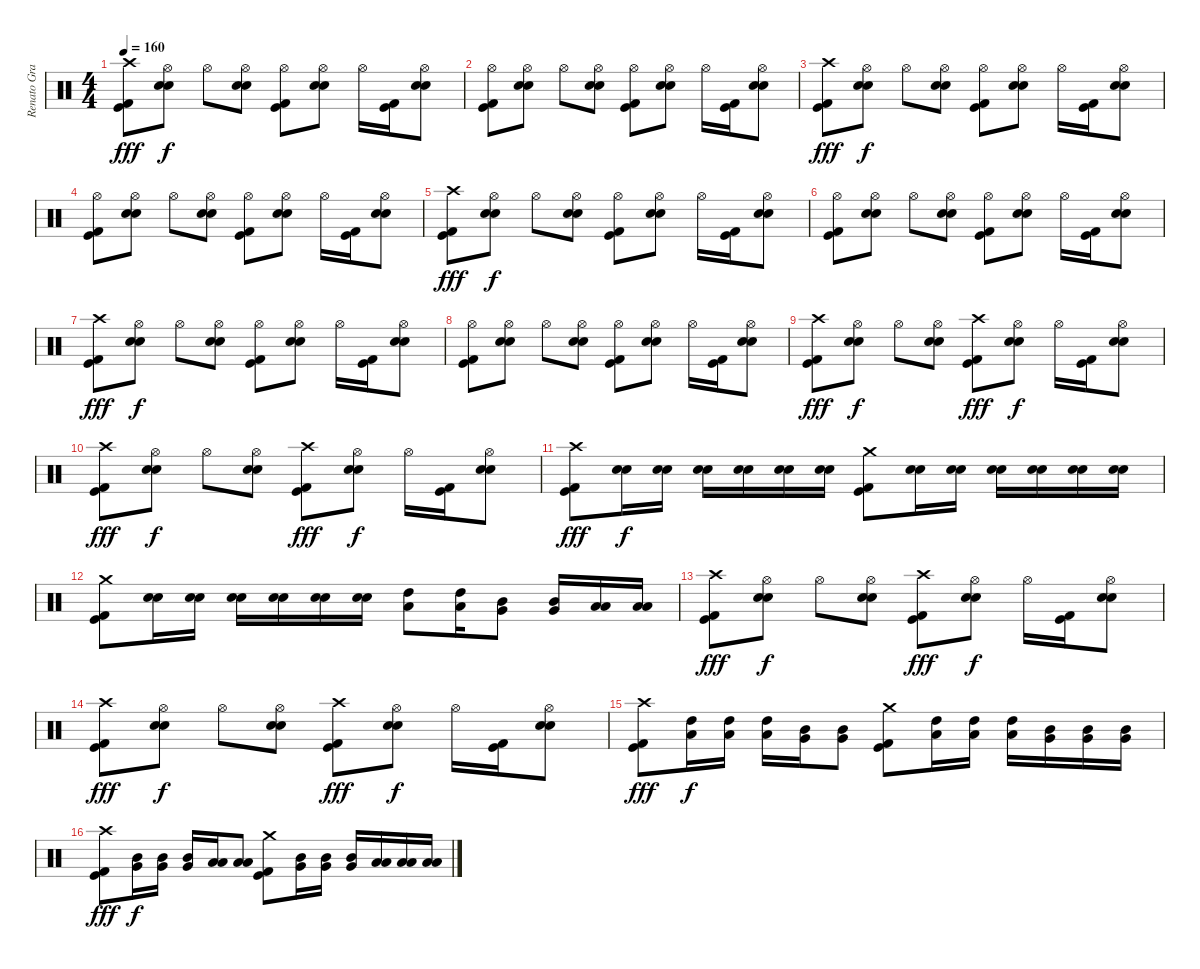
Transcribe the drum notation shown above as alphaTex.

\track ("Renato Graccia" "Renato Gra") {instrument percussion}
\staff {score}
\articulation defaults
\ts (4 4)
\tempo 160
\clef neutral
\ks c
("Crash high (hit)" "Kick (hit) 2" "Kick (hit)").8{dy fff} ("Hi-Hat (open)" "Electric Snare (hit)" "Snare (hit) 2").8{dy f} "Hi-Hat (open)".8 ("Hi-Hat (open)" "Electric Snare (hit)" "Snare (hit) 2").8 ("Hi-Hat (open)" "Kick (hit) 2" "Kick (hit)").8 ("Hi-Hat (open)" "Electric Snare (hit)" "Snare (hit) 2").8 "Hi-Hat (open)".16 ("Kick (hit) 2" "Kick (hit)").16 ("Hi-Hat (open)" "Electric Snare (hit)" "Snare (hit) 2").8 |
("Hi-Hat (open)" "Kick (hit) 2" "Kick (hit)").8 ("Hi-Hat (open)" "Electric Snare (hit)" "Snare (hit) 2").8 "Hi-Hat (open)".8 ("Hi-Hat (open)" "Electric Snare (hit)" "Snare (hit) 2").8 ("Hi-Hat (open)" "Kick (hit) 2" "Kick (hit)").8 ("Hi-Hat (open)" "Electric Snare (hit)" "Snare (hit) 2").8 "Hi-Hat (open)".16 ("Kick (hit) 2" "Kick (hit)").16 ("Hi-Hat (open)" "Electric Snare (hit)" "Snare (hit) 2").8 |
("Crash high (hit)" "Kick (hit) 2" "Kick (hit)").8{dy fff} ("Hi-Hat (open)" "Electric Snare (hit)" "Snare (hit) 2").8{dy f} "Hi-Hat (open)".8 ("Hi-Hat (open)" "Electric Snare (hit)" "Snare (hit) 2").8 ("Hi-Hat (open)" "Kick (hit) 2" "Kick (hit)").8 ("Hi-Hat (open)" "Electric Snare (hit)" "Snare (hit) 2").8 "Hi-Hat (open)".16 ("Kick (hit) 2" "Kick (hit)").16 ("Hi-Hat (open)" "Electric Snare (hit)" "Snare (hit) 2").8 |
("Hi-Hat (open)" "Kick (hit) 2" "Kick (hit)").8 ("Hi-Hat (open)" "Electric Snare (hit)" "Snare (hit) 2").8 "Hi-Hat (open)".8 ("Hi-Hat (open)" "Electric Snare (hit)" "Snare (hit) 2").8 ("Hi-Hat (open)" "Kick (hit) 2" "Kick (hit)").8 ("Hi-Hat (open)" "Electric Snare (hit)" "Snare (hit) 2").8 "Hi-Hat (open)".16 ("Kick (hit) 2" "Kick (hit)").16 ("Hi-Hat (open)" "Electric Snare (hit)" "Snare (hit) 2").8 |
("Crash high (hit)" "Kick (hit) 2" "Kick (hit)").8{dy fff} ("Hi-Hat (open)" "Electric Snare (hit)" "Snare (hit) 2").8{dy f} "Hi-Hat (open)".8 ("Hi-Hat (open)" "Electric Snare (hit)" "Snare (hit) 2").8 ("Hi-Hat (open)" "Kick (hit) 2" "Kick (hit)").8 ("Hi-Hat (open)" "Electric Snare (hit)" "Snare (hit) 2").8 "Hi-Hat (open)".16 ("Kick (hit) 2" "Kick (hit)").16 ("Hi-Hat (open)" "Electric Snare (hit)" "Snare (hit) 2").8 |
("Hi-Hat (open)" "Kick (hit) 2" "Kick (hit)").8 ("Hi-Hat (open)" "Electric Snare (hit)" "Snare (hit) 2").8 "Hi-Hat (open)".8 ("Hi-Hat (open)" "Electric Snare (hit)" "Snare (hit) 2").8 ("Hi-Hat (open)" "Kick (hit) 2" "Kick (hit)").8 ("Hi-Hat (open)" "Electric Snare (hit)" "Snare (hit) 2").8 "Hi-Hat (open)".16 ("Kick (hit) 2" "Kick (hit)").16 ("Hi-Hat (open)" "Electric Snare (hit)" "Snare (hit) 2").8 |
("Crash high (hit)" "Kick (hit) 2" "Kick (hit)").8{dy fff} ("Hi-Hat (open)" "Electric Snare (hit)" "Snare (hit) 2").8{dy f} "Hi-Hat (open)".8 ("Hi-Hat (open)" "Electric Snare (hit)" "Snare (hit) 2").8 ("Hi-Hat (open)" "Kick (hit) 2" "Kick (hit)").8 ("Hi-Hat (open)" "Electric Snare (hit)" "Snare (hit) 2").8 "Hi-Hat (open)".16 ("Kick (hit) 2" "Kick (hit)").16 ("Hi-Hat (open)" "Electric Snare (hit)" "Snare (hit) 2").8 |
("Hi-Hat (open)" "Kick (hit) 2" "Kick (hit)").8 ("Hi-Hat (open)" "Electric Snare (hit)" "Snare (hit) 2").8 "Hi-Hat (open)".8 ("Hi-Hat (open)" "Electric Snare (hit)" "Snare (hit) 2").8 ("Hi-Hat (open)" "Kick (hit) 2" "Kick (hit)").8 ("Hi-Hat (open)" "Electric Snare (hit)" "Snare (hit) 2").8 "Hi-Hat (open)".16 ("Kick (hit) 2" "Kick (hit)").16 ("Hi-Hat (open)" "Electric Snare (hit)" "Snare (hit) 2").8 |
("Crash high (hit)" "Kick (hit) 2" "Kick (hit)").8{dy fff} ("Hi-Hat (open)" "Electric Snare (hit)" "Snare (hit) 2").8{dy f} "Hi-Hat (open)".8 ("Hi-Hat (open)" "Electric Snare (hit)" "Snare (hit) 2").8 ("Crash high (hit)" "Kick (hit) 2" "Kick (hit)").8{dy fff} ("Hi-Hat (open)" "Electric Snare (hit)" "Snare (hit) 2").8{dy f} "Hi-Hat (open)".16 ("Kick (hit) 2" "Kick (hit)").16 ("Hi-Hat (open)" "Electric Snare (hit)" "Snare (hit) 2").8 |
("Crash high (hit)" "Kick (hit) 2" "Kick (hit)").8{dy fff} ("Hi-Hat (open)" "Electric Snare (hit)" "Snare (hit) 2").8{dy f} "Hi-Hat (open)".8 ("Hi-Hat (open)" "Electric Snare (hit)" "Snare (hit) 2").8 ("Crash high (hit)" "Kick (hit) 2" "Kick (hit)").8{dy fff} ("Hi-Hat (open)" "Electric Snare (hit)" "Snare (hit) 2").8{dy f} "Hi-Hat (open)".16 ("Kick (hit) 2" "Kick (hit)").16 ("Hi-Hat (open)" "Electric Snare (hit)" "Snare (hit) 2").8 |
("Crash high (hit)" "Kick (hit) 2" "Kick (hit)").8{dy fff} ("Electric Snare (hit)" "Snare (hit) 2").16{dy f} ("Electric Snare (hit)" "Snare (hit) 2").16 ("Electric Snare (hit)" "Snare (hit) 2").16 ("Electric Snare (hit)" "Snare (hit) 2").16 ("Electric Snare (hit)" "Snare (hit) 2").16 ("Electric Snare (hit)" "Snare (hit) 2").16 ("Crash medium (hit)" "Kick (hit) 2" "Kick (hit)").8 ("Electric Snare (hit)" "Snare (hit) 2").16 ("Electric Snare (hit)" "Snare (hit) 2").16 ("Electric Snare (hit)" "Snare (hit) 2").16 ("Electric Snare (hit)" "Snare (hit) 2").16 ("Electric Snare (hit)" "Snare (hit) 2").16 ("Electric Snare (hit)" "Snare (hit) 2").16 |
("Crash medium (hit)" "Kick (hit) 2" "Kick (hit)").8 ("Electric Snare (hit)" "Snare (hit) 2").16 ("Electric Snare (hit)" "Snare (hit) 2").16 ("Electric Snare (hit)" "Snare (hit) 2").16 ("Electric Snare (hit)" "Snare (hit) 2").16 ("Electric Snare (hit)" "Snare (hit) 2").16 ("Electric Snare (hit)" "Snare (hit) 2").16 ("High Tom (hit)" "Low Tom (hit)").8 ("High Tom (hit)" "Low Tom (hit)").16 ("Mid Tom (hit)" "Very Low Tom (hit)").8 ("Mid Tom (hit)" "Very Low Tom (hit)").16 ("Low Tom (hit)" "Low Floor Tom (hit)").16 ("Low Tom (hit)" "Low Floor Tom (hit)").16 |
("Crash high (hit)" "Kick (hit) 2" "Kick (hit)").8{dy fff} ("Hi-Hat (open)" "Electric Snare (hit)" "Snare (hit) 2").8{dy f} "Hi-Hat (open)".8 ("Hi-Hat (open)" "Electric Snare (hit)" "Snare (hit) 2").8 ("Crash high (hit)" "Kick (hit) 2" "Kick (hit)").8{dy fff} ("Hi-Hat (open)" "Electric Snare (hit)" "Snare (hit) 2").8{dy f} "Hi-Hat (open)".16 ("Kick (hit) 2" "Kick (hit)").16 ("Hi-Hat (open)" "Electric Snare (hit)" "Snare (hit) 2").8 |
("Crash high (hit)" "Kick (hit) 2" "Kick (hit)").8{dy fff} ("Hi-Hat (open)" "Electric Snare (hit)" "Snare (hit) 2").8{dy f} "Hi-Hat (open)".8 ("Hi-Hat (open)" "Electric Snare (hit)" "Snare (hit) 2").8 ("Crash high (hit)" "Kick (hit) 2" "Kick (hit)").8{dy fff} ("Hi-Hat (open)" "Electric Snare (hit)" "Snare (hit) 2").8{dy f} "Hi-Hat (open)".16 ("Kick (hit) 2" "Kick (hit)").16 ("Hi-Hat (open)" "Electric Snare (hit)" "Snare (hit) 2").8 |
("Crash high (hit)" "Kick (hit) 2" "Kick (hit)").8{dy fff} ("High Tom (hit)" "Low Tom (hit)").16{dy f} ("High Tom (hit)" "Low Tom (hit)").16 ("High Tom (hit)" "Low Tom (hit)").16 ("Mid Tom (hit)" "Very Low Tom (hit)").16 ("Mid Tom (hit)" "Very Low Tom (hit)").8 ("Crash medium (hit)" "Kick (hit) 2" "Kick (hit)").8 ("High Tom (hit)" "Low Tom (hit)").16 ("High Tom (hit)" "Low Tom (hit)").16 ("High Tom (hit)" "Low Tom (hit)").16 ("Mid Tom (hit)" "Very Low Tom (hit)").16 ("Mid Tom (hit)" "Very Low Tom (hit)").16 ("Mid Tom (hit)" "Very Low Tom (hit)").16 |
("Crash high (hit)" "Kick (hit) 2" "Kick (hit)").8{dy fff} ("Mid Tom (hit)" "Very Low Tom (hit)").16{dy f} ("Mid Tom (hit)" "Very Low Tom (hit)").16 ("Mid Tom (hit)" "Very Low Tom (hit)").16 ("Low Tom (hit)" "Low Tom (hit)").16 ("Low Tom (hit)" "Low Floor Tom (hit)").8 ("Crash medium (hit)" "Kick (hit) 2" "Kick (hit)").8 ("Mid Tom (hit)" "Very Low Tom (hit)").16 ("Mid Tom (hit)" "Very Low Tom (hit)").16 ("Mid Tom (hit)" "Very Low Tom (hit)").16 ("Low Tom (hit)" "Low Tom (hit)").16 ("Low Tom (hit)" "Low Floor Tom (hit)").16 ("Low Tom (hit)" "Low Floor Tom (hit)").16
